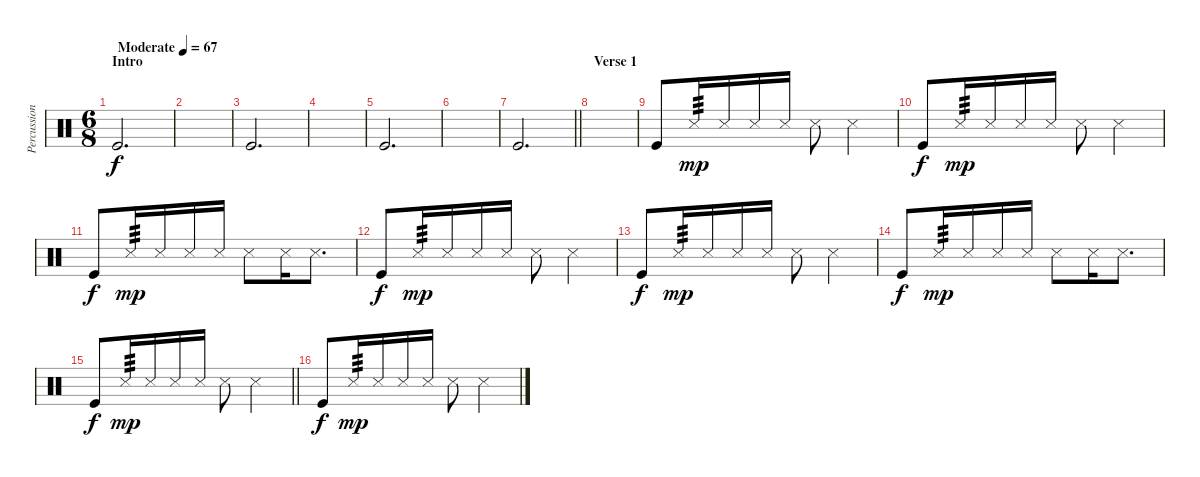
\track ("Percussions" "Percussion") {instrument percussion}
\staff {score}
\articulation defaults
\ts (6 8)
\section ("" "Intro")
\tempo (67 "Moderate")
\clef neutral
\ks c "Kick (hit)".2{d dy f}
|
|
"Kick (hit)".2{d} |
|
"Kick (hit)".2{d} |
|
\barLineRight lightlight "Kick (hit)".2{d}
|
\section ("" "Verse 1")
|
"Kick (hit)".8 "Snare (side stick) 3".16{tp 3 dy mp} "Snare (side stick) 3".16 "Snare (side stick) 3".16 "Snare (side stick) 3".16 "Snare (side stick) 3".8 "Snare (side stick) 3".4 |
"Kick (hit)".8{dy f} "Snare (side stick) 3".16{tp 3 dy mp} "Snare (side stick) 3".16 "Snare (side stick) 3".16 "Snare (side stick) 3".16 "Snare (side stick) 3".8 "Snare (side stick) 3".4 |
"Kick (hit)".8{dy f} "Snare (side stick) 3".16{tp 3 dy mp} "Snare (side stick) 3".16 "Snare (side stick) 3".16 "Snare (side stick) 3".16 "Snare (side stick) 3".8 "Snare (side stick) 3".16 "Snare (side stick) 3".8{d} |
"Kick (hit)".8{dy f} "Snare (side stick) 3".16{tp 3 dy mp} "Snare (side stick) 3".16 "Snare (side stick) 3".16 "Snare (side stick) 3".16 "Snare (side stick) 3".8 "Snare (side stick) 3".4 |
"Kick (hit)".8{dy f} "Snare (side stick) 3".16{tp 3 dy mp} "Snare (side stick) 3".16 "Snare (side stick) 3".16 "Snare (side stick) 3".16 "Snare (side stick) 3".8 "Snare (side stick) 3".4 |
"Kick (hit)".8{dy f} "Snare (side stick) 3".16{tp 3 dy mp} "Snare (side stick) 3".16 "Snare (side stick) 3".16 "Snare (side stick) 3".16 "Snare (side stick) 3".8 "Snare (side stick) 3".16 "Snare (side stick) 3".8{d} |
\barLineRight lightlight "Kick (hit)".8{dy f} "Snare (side stick) 3".16{tp 3 dy mp} "Snare (side stick) 3".16 "Snare (side stick) 3".16 "Snare (side stick) 3".16 "Snare (side stick) 3".8 "Snare (side stick) 3".4
|
"Kick (hit)".8{dy f} "Snare (side stick) 3".16{tp 3 dy mp} "Snare (side stick) 3".16 "Snare (side stick) 3".16 "Snare (side stick) 3".16 "Snare (side stick) 3".8 "Snare (side stick) 3".4
